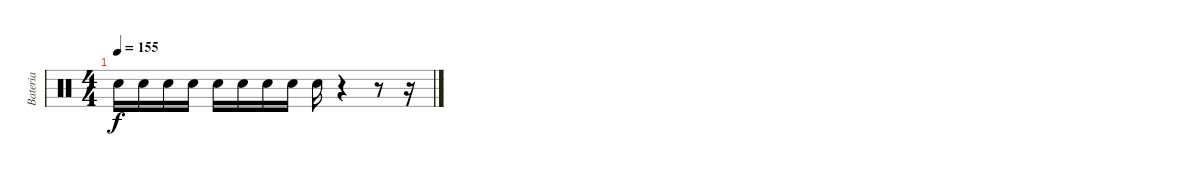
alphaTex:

\track ("Bateria" "Bateria") {instrument percussion}
\staff {score}
\articulation defaults
\ts (4 4)
\tempo 155
\clef neutral
\ks c "Electric Snare (hit)".16{dy f} "Electric Snare (hit)".16 "Electric Snare (hit)".16 "Electric Snare (hit)".16 "Electric Snare (hit)".16 "Electric Snare (hit)".16 "Electric Snare (hit)".16 "Electric Snare (hit)".16 "Electric Snare (hit)".16
r.4 r.8 r.16
